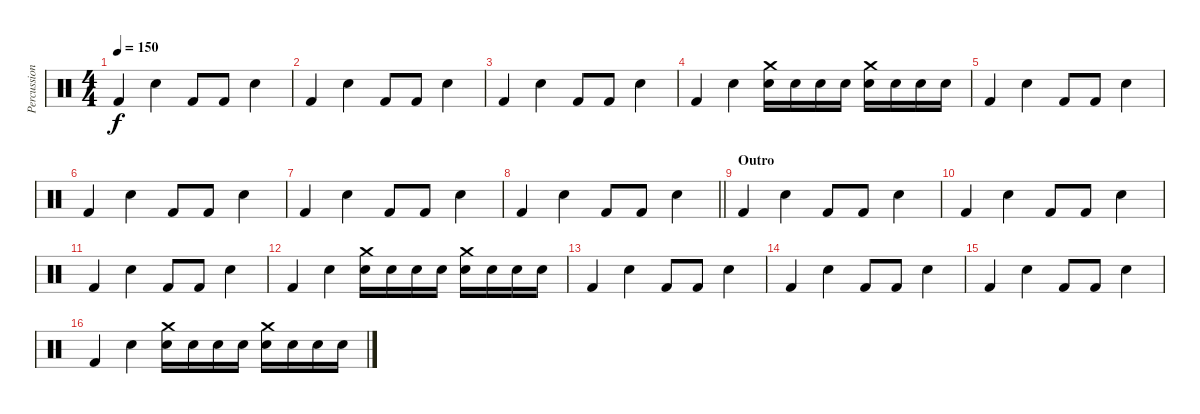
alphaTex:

\track ("Percussion" "Percussion") {instrument percussion bank 255}
\staff {score}
\articulation defaults
\ts (4 4)
\tempo 150
\clef neutral
\ks c "Kick (hit) 2".4{dy f} "Electric Snare (hit)".4 "Kick (hit) 2".8 "Kick (hit) 2".8 "Electric Snare (hit)".4
|
"Kick (hit) 2".4 "Electric Snare (hit)".4 "Kick (hit) 2".8 "Kick (hit) 2".8 "Electric Snare (hit)".4 |
"Kick (hit) 2".4 "Electric Snare (hit)".4 "Kick (hit) 2".8 "Kick (hit) 2".8 "Electric Snare (hit)".4 |
"Kick (hit) 2".4 "Electric Snare (hit)".4 ("Crash medium (hit)" "Electric Snare (hit)").16 "Electric Snare (hit)".16 "Electric Snare (hit)".16 "Electric Snare (hit)".16 ("Crash medium (hit)" "Electric Snare (hit)").16 "Electric Snare (hit)".16 "Electric Snare (hit)".16 "Electric Snare (hit)".16 |
"Kick (hit) 2".4 "Electric Snare (hit)".4 "Kick (hit) 2".8 "Kick (hit) 2".8 "Electric Snare (hit)".4 |
"Kick (hit) 2".4 "Electric Snare (hit)".4 "Kick (hit) 2".8 "Kick (hit) 2".8 "Electric Snare (hit)".4 |
"Kick (hit) 2".4 "Electric Snare (hit)".4 "Kick (hit) 2".8 "Kick (hit) 2".8 "Electric Snare (hit)".4 |
\barLineRight lightlight "Kick (hit) 2".4 "Electric Snare (hit)".4 "Kick (hit) 2".8 "Kick (hit) 2".8 "Electric Snare (hit)".4
|
\section ("" "Outro")
"Kick (hit) 2".4 "Electric Snare (hit)".4 "Kick (hit) 2".8 "Kick (hit) 2".8 "Electric Snare (hit)".4 |
"Kick (hit) 2".4 "Electric Snare (hit)".4 "Kick (hit) 2".8 "Kick (hit) 2".8 "Electric Snare (hit)".4 |
"Kick (hit) 2".4 "Electric Snare (hit)".4 "Kick (hit) 2".8 "Kick (hit) 2".8 "Electric Snare (hit)".4 |
"Kick (hit) 2".4 "Electric Snare (hit)".4 ("Crash medium (hit)" "Electric Snare (hit)").16 "Electric Snare (hit)".16 "Electric Snare (hit)".16 "Electric Snare (hit)".16 ("Crash medium (hit)" "Electric Snare (hit)").16 "Electric Snare (hit)".16 "Electric Snare (hit)".16 "Electric Snare (hit)".16 |
"Kick (hit) 2".4 "Electric Snare (hit)".4 "Kick (hit) 2".8 "Kick (hit) 2".8 "Electric Snare (hit)".4 |
"Kick (hit) 2".4 "Electric Snare (hit)".4 "Kick (hit) 2".8 "Kick (hit) 2".8 "Electric Snare (hit)".4 |
"Kick (hit) 2".4 "Electric Snare (hit)".4 "Kick (hit) 2".8 "Kick (hit) 2".8 "Electric Snare (hit)".4 |
"Kick (hit) 2".4 "Electric Snare (hit)".4 ("Crash medium (hit)" "Electric Snare (hit)").16 "Electric Snare (hit)".16 "Electric Snare (hit)".16 "Electric Snare (hit)".16 ("Crash medium (hit)" "Electric Snare (hit)").16 "Electric Snare (hit)".16 "Electric Snare (hit)".16 "Electric Snare (hit)".16
